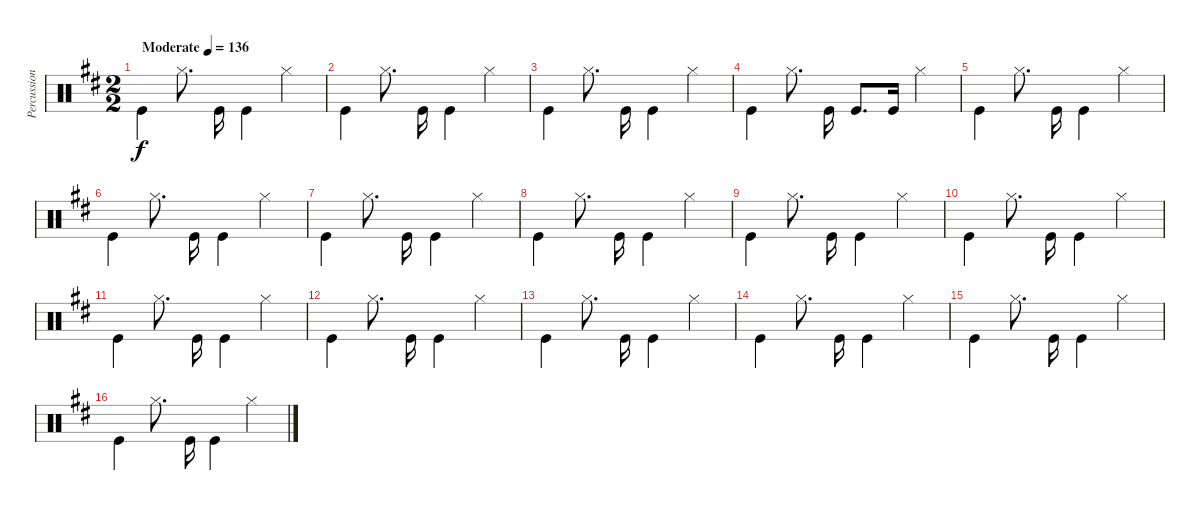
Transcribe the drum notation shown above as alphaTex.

\track ("Percussion" "Percussion") {instrument percussion}
\staff {score}
\articulation defaults
\ts (2 2)
\tempo (136 "Moderate")
\clef neutral
\ks d "Kick (hit)".4{dy f beam Down} "Hi-Hat (closed)".8{d beam split} "Kick (hit)".16{beam Down} "Kick (hit)".4{beam Down} "Hi-Hat (closed)".4
|
"Kick (hit)".4{beam Down} "Hi-Hat (closed)".8{d beam split} "Kick (hit)".16{beam Down} "Kick (hit)".4{beam Down} "Hi-Hat (closed)".4 |
"Kick (hit)".4{beam Down} "Hi-Hat (closed)".8{d beam split} "Kick (hit)".16{beam Down} "Kick (hit)".4{beam Down} "Hi-Hat (closed)".4 |
"Kick (hit)".4{beam Down} "Hi-Hat (closed)".8{d beam split} "Kick (hit)".16{beam Down beam split} "Kick (hit)".8{d beam merge} "Kick (hit)".16 "Hi-Hat (closed)".4 |
"Kick (hit)".4{beam Down} "Hi-Hat (closed)".8{d beam split} "Kick (hit)".16{beam Down} "Kick (hit)".4{beam Down} "Hi-Hat (closed)".4 |
"Kick (hit)".4{beam Down} "Hi-Hat (closed)".8{d beam split} "Kick (hit)".16{beam Down} "Kick (hit)".4{beam Down} "Hi-Hat (closed)".4 |
"Kick (hit)".4{beam Down} "Hi-Hat (closed)".8{d beam split} "Kick (hit)".16{beam Down} "Kick (hit)".4{beam Down} "Hi-Hat (closed)".4 |
"Kick (hit)".4{beam Down} "Hi-Hat (closed)".8{d beam split} "Kick (hit)".16{beam Down} "Kick (hit)".4{beam Down} "Hi-Hat (closed)".4 |
"Kick (hit)".4{beam Down} "Hi-Hat (closed)".8{d beam split} "Kick (hit)".16{beam Down} "Kick (hit)".4{beam Down} "Hi-Hat (closed)".4 |
"Kick (hit)".4{beam Down} "Hi-Hat (closed)".8{d beam split} "Kick (hit)".16{beam Down} "Kick (hit)".4{beam Down} "Hi-Hat (closed)".4 |
"Kick (hit)".4{beam Down} "Hi-Hat (closed)".8{d beam split} "Kick (hit)".16{beam Down} "Kick (hit)".4{beam Down} "Hi-Hat (closed)".4 |
"Kick (hit)".4{beam Down} "Hi-Hat (closed)".8{d beam split} "Kick (hit)".16{beam Down} "Kick (hit)".4{beam Down} "Hi-Hat (closed)".4 |
"Kick (hit)".4{beam Down} "Hi-Hat (closed)".8{d beam split} "Kick (hit)".16{beam Down} "Kick (hit)".4{beam Down} "Hi-Hat (closed)".4 |
"Kick (hit)".4{beam Down} "Hi-Hat (closed)".8{d beam split} "Kick (hit)".16{beam Down} "Kick (hit)".4{beam Down} "Hi-Hat (closed)".4 |
"Kick (hit)".4{beam Down} "Hi-Hat (closed)".8{d beam split} "Kick (hit)".16{beam Down} "Kick (hit)".4{beam Down} "Hi-Hat (closed)".4 |
"Kick (hit)".4{beam Down} "Hi-Hat (closed)".8{d beam split} "Kick (hit)".16{beam Down} "Kick (hit)".4{beam Down} "Hi-Hat (closed)".4
